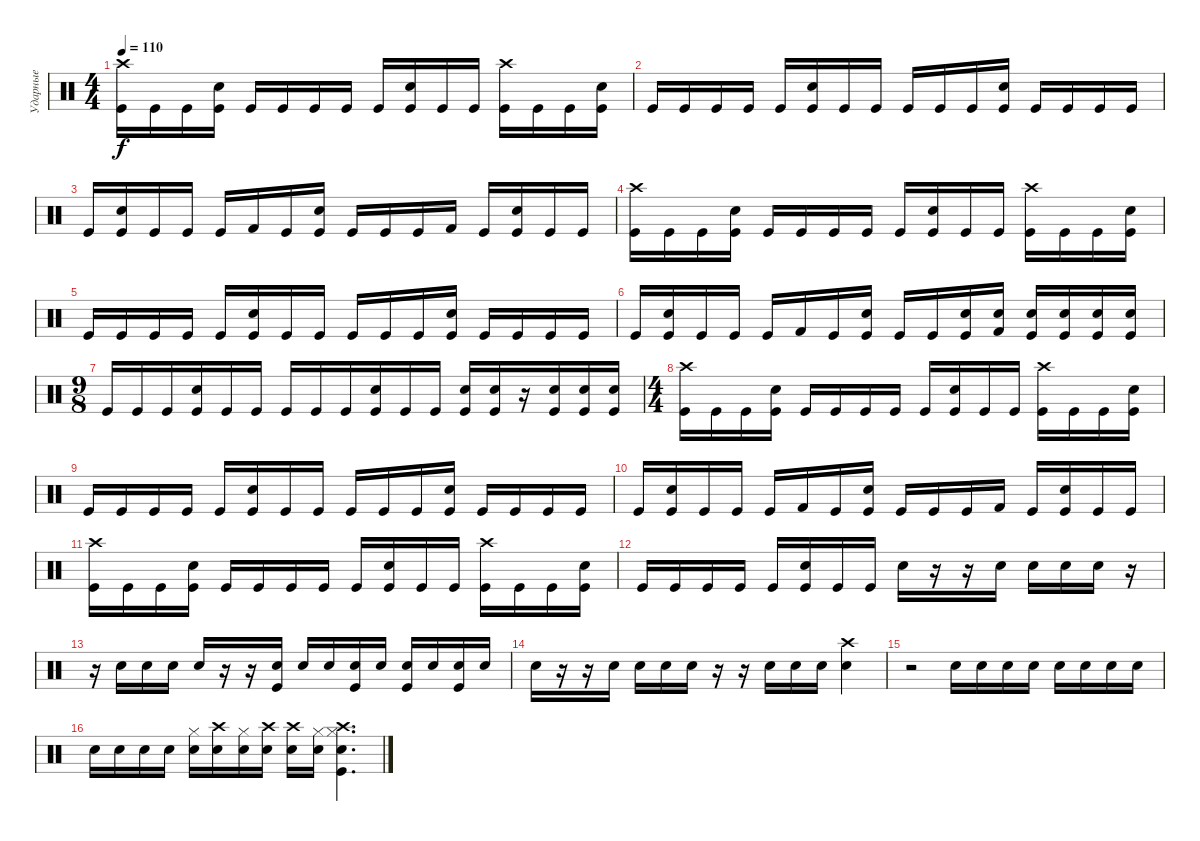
\track ("Ударные" "Ударные") {instrument percussion}
\staff {score}
\articulation defaults
\ts (4 4)
\tempo 110
\clef neutral
\ks c
("Crash high (hit)" "Kick (hit)").16{dy f} "Kick (hit)".16 "Kick (hit)".16 ("Electric Snare (hit)" "Kick (hit)").16 "Kick (hit)".16 "Kick (hit)".16 "Kick (hit)".16 "Kick (hit)".16 "Kick (hit)".16 ("Electric Snare (hit)" "Kick (hit)").16 "Kick (hit)".16 "Kick (hit)".16 ("Crash high (hit)" "Kick (hit)").16 "Kick (hit)".16 "Kick (hit)".16 ("Electric Snare (hit)" "Kick (hit)").16 |
"Kick (hit)".16 "Kick (hit)".16 "Kick (hit)".16 "Kick (hit)".16 "Kick (hit)".16 ("Electric Snare (hit)" "Kick (hit)").16 "Kick (hit)".16 "Kick (hit)".16 "Kick (hit)".16 "Kick (hit)".16 "Kick (hit)".16 ("Electric Snare (hit)" "Kick (hit)").16 "Kick (hit)".16 "Kick (hit)".16 "Kick (hit)".16 "Kick (hit)".16 |
"Kick (hit)".16 ("Electric Snare (hit)" "Kick (hit)").16 "Kick (hit)".16 "Kick (hit)".16 "Kick (hit)".16 "Kick (hit) 2".16 "Kick (hit)".16 ("Electric Snare (hit)" "Kick (hit)").16 "Kick (hit)".16 "Kick (hit)".16 "Kick (hit)".16 "Kick (hit) 2".16 "Kick (hit)".16 ("Electric Snare (hit)" "Kick (hit)").16 "Kick (hit)".16 "Kick (hit)".16 |
("Crash high (hit)" "Kick (hit)").16 "Kick (hit)".16 "Kick (hit)".16 ("Electric Snare (hit)" "Kick (hit)").16 "Kick (hit)".16 "Kick (hit)".16 "Kick (hit)".16 "Kick (hit)".16 "Kick (hit)".16 ("Electric Snare (hit)" "Kick (hit)").16 "Kick (hit)".16 "Kick (hit)".16 ("Crash high (hit)" "Kick (hit)").16 "Kick (hit)".16 "Kick (hit)".16 ("Electric Snare (hit)" "Kick (hit)").16 |
"Kick (hit)".16 "Kick (hit)".16 "Kick (hit)".16 "Kick (hit)".16 "Kick (hit)".16 ("Electric Snare (hit)" "Kick (hit)").16 "Kick (hit)".16 "Kick (hit)".16 "Kick (hit)".16 "Kick (hit)".16 "Kick (hit)".16 ("Electric Snare (hit)" "Kick (hit)").16 "Kick (hit)".16 "Kick (hit)".16 "Kick (hit)".16 "Kick (hit)".16 |
"Kick (hit)".16 ("Electric Snare (hit)" "Kick (hit)").16 "Kick (hit)".16 "Kick (hit)".16 "Kick (hit)".16 "Kick (hit) 2".16 "Kick (hit)".16 ("Electric Snare (hit)" "Kick (hit)").16 "Kick (hit)".16 "Kick (hit)".16 ("Electric Snare (hit)" "Kick (hit)").16 ("Electric Snare (hit)" "Kick (hit) 2").16 ("Electric Snare (hit)" "Kick (hit)").16 ("Electric Snare (hit)" "Kick (hit)").16 ("Electric Snare (hit)" "Kick (hit)").16 ("Electric Snare (hit)" "Kick (hit)").16 |
\ts (9 8)
"Kick (hit)".16 "Kick (hit)".16 "Kick (hit)".16 ("Electric Snare (hit)" "Kick (hit)").16 "Kick (hit)".16 "Kick (hit)".16 "Kick (hit)".16 "Kick (hit)".16 "Kick (hit)".16 ("Electric Snare (hit)" "Kick (hit)").16 "Kick (hit)".16 "Kick (hit)".16 ("Electric Snare (hit)" "Kick (hit)").16 ("Electric Snare (hit)" "Kick (hit)").16 r.16 ("Electric Snare (hit)" "Kick (hit)").16 ("Electric Snare (hit)" "Kick (hit)").16 ("Electric Snare (hit)" "Kick (hit)").16 |
\ts (4 4)
("Crash high (hit)" "Kick (hit)").16 "Kick (hit)".16 "Kick (hit)".16 ("Electric Snare (hit)" "Kick (hit)").16 "Kick (hit)".16 "Kick (hit)".16 "Kick (hit)".16 "Kick (hit)".16 "Kick (hit)".16 ("Electric Snare (hit)" "Kick (hit)").16 "Kick (hit)".16 "Kick (hit)".16 ("Crash high (hit)" "Kick (hit)").16 "Kick (hit)".16 "Kick (hit)".16 ("Electric Snare (hit)" "Kick (hit)").16 |
"Kick (hit)".16 "Kick (hit)".16 "Kick (hit)".16 "Kick (hit)".16 "Kick (hit)".16 ("Electric Snare (hit)" "Kick (hit)").16 "Kick (hit)".16 "Kick (hit)".16 "Kick (hit)".16 "Kick (hit)".16 "Kick (hit)".16 ("Electric Snare (hit)" "Kick (hit)").16 "Kick (hit)".16 "Kick (hit)".16 "Kick (hit)".16 "Kick (hit)".16 |
"Kick (hit)".16 ("Electric Snare (hit)" "Kick (hit)").16 "Kick (hit)".16 "Kick (hit)".16 "Kick (hit)".16 "Kick (hit) 2".16 "Kick (hit)".16 ("Electric Snare (hit)" "Kick (hit)").16 "Kick (hit)".16 "Kick (hit)".16 "Kick (hit)".16 "Kick (hit) 2".16 "Kick (hit)".16 ("Electric Snare (hit)" "Kick (hit)").16 "Kick (hit)".16 "Kick (hit)".16 |
("Crash high (hit)" "Kick (hit)").16 "Kick (hit)".16 "Kick (hit)".16 ("Electric Snare (hit)" "Kick (hit)").16 "Kick (hit)".16 "Kick (hit)".16 "Kick (hit)".16 "Kick (hit)".16 "Kick (hit)".16 ("Electric Snare (hit)" "Kick (hit)").16 "Kick (hit)".16 "Kick (hit)".16 ("Crash high (hit)" "Kick (hit)").16 "Kick (hit)".16 "Kick (hit)".16 ("Electric Snare (hit)" "Kick (hit)").16 |
"Kick (hit)".16 "Kick (hit)".16 "Kick (hit)".16 "Kick (hit)".16 "Kick (hit)".16 ("Electric Snare (hit)" "Kick (hit)").16 "Kick (hit)".16 "Kick (hit)".16 "Electric Snare (hit)".16 r.16 r.16 "Electric Snare (hit)".16 "Electric Snare (hit)".16 "Electric Snare (hit)".16 "Electric Snare (hit)".16 r.16 |
r.16 "Electric Snare (hit)".16 "Electric Snare (hit)".16 "Electric Snare (hit)".16 "Electric Snare (hit)".16 r.16 r.16 ("Electric Snare (hit)" "Kick (hit)").16 "Electric Snare (hit)".16 "Electric Snare (hit)".16 ("Electric Snare (hit)" "Kick (hit)").16 "Electric Snare (hit)".16 ("Electric Snare (hit)" "Kick (hit)").16 "Electric Snare (hit)".16 ("Electric Snare (hit)" "Kick (hit)").16 "Electric Snare (hit)".16 |
"Electric Snare (hit)".16 r.16 r.16 "Electric Snare (hit)".16 "Electric Snare (hit)".16 "Electric Snare (hit)".16 "Electric Snare (hit)".16 r.16 r.16 "Electric Snare (hit)".16 "Electric Snare (hit)".16 "Electric Snare (hit)".16 ("Crash high (hit)" "Electric Snare (hit)").4 |
r.2 "Electric Snare (hit)".16 "Electric Snare (hit)".16 "Electric Snare (hit)".16 "Electric Snare (hit)".16 "Electric Snare (hit)".16 "Electric Snare (hit)".16 "Electric Snare (hit)".16 "Electric Snare (hit)".16 |
"Electric Snare (hit)".16 "Electric Snare (hit)".16 "Electric Snare (hit)".16 "Electric Snare (hit)".16 ("Hi-Hat (closed)" "Electric Snare (hit)").16 ("Crash high (hit)" "Electric Snare (hit)").16 ("Hi-Hat (closed)" "Electric Snare (hit)").16 ("Crash high (hit)" "Electric Snare (hit)").16 ("Crash high (hit)" "Electric Snare (hit)").16 ("Hi-Hat (closed)" "Electric Snare (hit)").16 ("Crash high (hit)" "Hi-Hat (closed)" "Electric Snare (hit)" "Kick (hit)").4{d}
